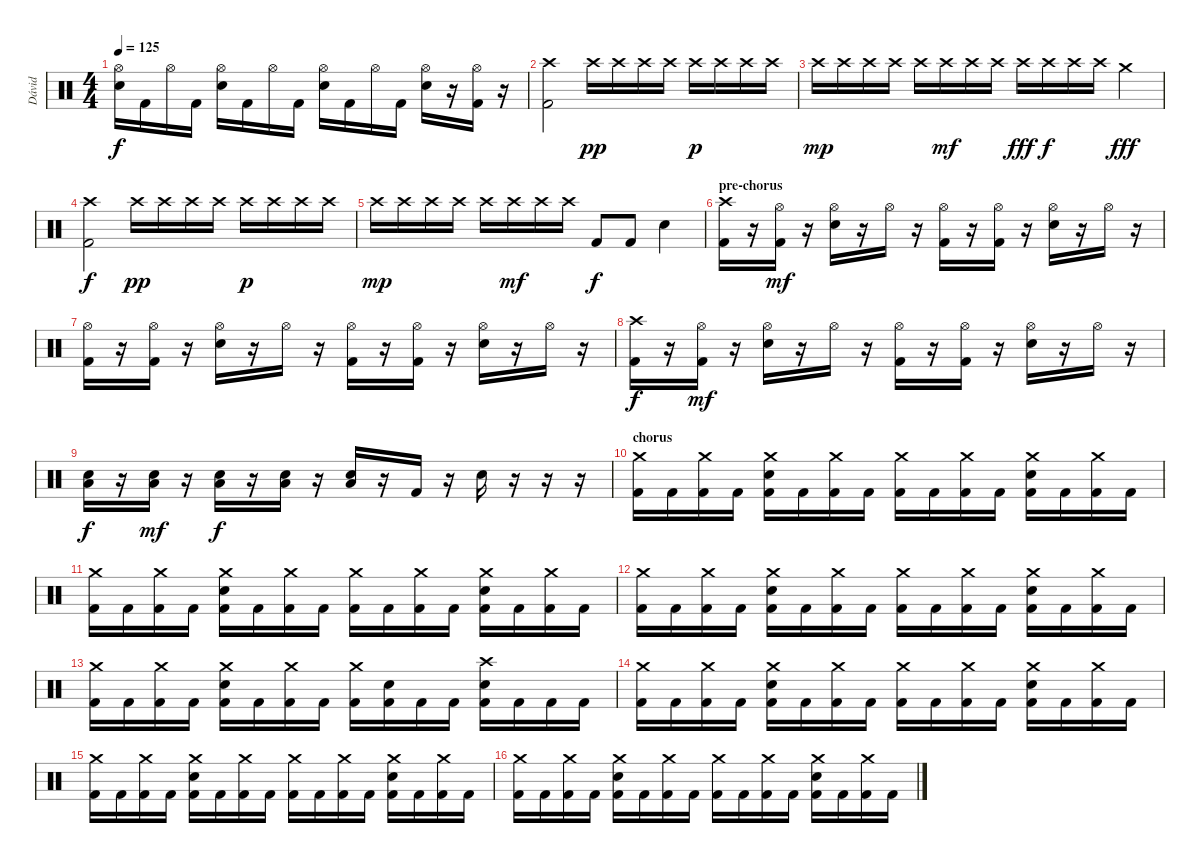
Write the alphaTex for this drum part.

\track ("Dávid" "Dávid") {instrument percussion}
\staff {score}
\articulation defaults
\ts (4 4)
\tempo 125
\clef neutral
\ks c
("Hi-Hat (open)" "Electric Snare (hit)").16{dy f} "Kick (hit) 2".16 "Hi-Hat (open)".16 "Kick (hit) 2".16 ("Hi-Hat (open)" "Electric Snare (hit)").16 "Kick (hit) 2".16 "Hi-Hat (open)".16 "Kick (hit) 2".16 ("Hi-Hat (open)" "Electric Snare (hit)").16 "Kick (hit) 2".16 "Hi-Hat (open)".16 "Kick (hit) 2".16 ("Hi-Hat (open)" "Electric Snare (hit)").16 r.16 ("Hi-Hat (open)" "Kick (hit) 2").16 r.16 |
("Crash high (hit)" "Kick (hit) 2").2 "Crash high (hit)".16{dy pp} "Crash high (hit)".16 "Crash high (hit)".16 "Crash high (hit)".16 "Crash high (hit)".16{dy p} "Crash high (hit)".16 "Crash high (hit)".16 "Crash high (hit)".16 |
"Crash high (hit)".16{dy mp} "Crash high (hit)".16 "Crash high (hit)".16 "Crash high (hit)".16 "Crash high (hit)".16 "Crash high (hit)".16{dy mf} "Crash high (hit)".16 "Crash high (hit)".16 "Crash high (hit)".16{dy fff} "Crash high (hit)".16{dy f} "Crash high (hit)".16 "Crash high (hit)".16 "Crash medium (hit)".4{dy fff} |
("Crash high (hit)" "Kick (hit) 2").2{dy f} "Crash high (hit)".16{dy pp} "Crash high (hit)".16 "Crash high (hit)".16 "Crash high (hit)".16 "Crash high (hit)".16{dy p} "Crash high (hit)".16 "Crash high (hit)".16 "Crash high (hit)".16 |
"Crash high (hit)".16{dy mp} "Crash high (hit)".16 "Crash high (hit)".16 "Crash high (hit)".16 "Crash high (hit)".16 "Crash high (hit)".16{dy mf} "Crash high (hit)".16 "Crash high (hit)".16 "Kick (hit) 2".8{dy f} "Kick (hit) 2".8 "Electric Snare (hit)".4 |
\section ("" "pre-chorus")
("Crash high (hit)" "Kick (hit) 2").16 r.16 ("Hi-Hat (open)" "Kick (hit) 2").16{dy mf} r.16 ("Hi-Hat (open)" "Electric Snare (hit)").16 r.16 "Hi-Hat (open)".16 r.16 ("Hi-Hat (open)" "Kick (hit) 2").16 r.16 ("Hi-Hat (open)" "Kick (hit) 2").16 r.16 ("Hi-Hat (open)" "Electric Snare (hit)").16 r.16 "Hi-Hat (open)".16 r.16 |
("Hi-Hat (open)" "Kick (hit) 2").16 r.16 ("Hi-Hat (open)" "Kick (hit) 2").16 r.16 ("Hi-Hat (open)" "Electric Snare (hit)").16 r.16 "Hi-Hat (open)".16 r.16 ("Hi-Hat (open)" "Kick (hit) 2").16 r.16 ("Hi-Hat (open)" "Kick (hit) 2").16 r.16 ("Hi-Hat (open)" "Electric Snare (hit)").16 r.16 "Hi-Hat (open)".16 r.16 |
("Crash high (hit)" "Kick (hit) 2").16{dy f} r.16 ("Hi-Hat (open)" "Kick (hit) 2").16{dy mf} r.16 ("Hi-Hat (open)" "Electric Snare (hit)").16 r.16 "Hi-Hat (open)".16 r.16 ("Hi-Hat (open)" "Kick (hit) 2").16 r.16 ("Hi-Hat (open)" "Kick (hit) 2").16 r.16 ("Hi-Hat (open)" "Electric Snare (hit)").16 r.16 "Hi-Hat (open)".16 r.16 |
("Low Floor Tom (hit)" "Electric Snare (hit)").16{dy f} r.16 ("Low Floor Tom (hit)" "Electric Snare (hit)").16{dy mf} r.16 ("Low Floor Tom (hit)" "Electric Snare (hit)").16{dy f} r.16 ("Low Floor Tom (hit)" "Electric Snare (hit)").16 r.16 ("Low Floor Tom (hit)" "Electric Snare (hit)").16 r.16 "Kick (hit) 2".16 r.16 "Electric Snare (hit)".16 r.16 r.16 r.16 |
\section ("" "chorus")
("Crash medium (hit)" "Kick (hit) 2").16 "Kick (hit) 2".16 ("Crash medium (hit)" "Kick (hit) 2").16 "Kick (hit) 2".16 ("Crash medium (hit)" "Electric Snare (hit)" "Kick (hit) 2").16 "Kick (hit) 2".16 ("Crash medium (hit)" "Kick (hit) 2").16 "Kick (hit) 2".16 ("Crash medium (hit)" "Kick (hit) 2").16 "Kick (hit) 2".16 ("Crash medium (hit)" "Kick (hit) 2").16 "Kick (hit) 2".16 ("Crash medium (hit)" "Electric Snare (hit)" "Kick (hit) 2").16 "Kick (hit) 2".16 ("Crash medium (hit)" "Kick (hit) 2").16 "Kick (hit) 2".16 |
("Crash medium (hit)" "Kick (hit) 2").16 "Kick (hit) 2".16 ("Crash medium (hit)" "Kick (hit) 2").16 "Kick (hit) 2".16 ("Crash medium (hit)" "Electric Snare (hit)" "Kick (hit) 2").16 "Kick (hit) 2".16 ("Crash medium (hit)" "Kick (hit) 2").16 "Kick (hit) 2".16 ("Crash medium (hit)" "Kick (hit) 2").16 "Kick (hit) 2".16 ("Crash medium (hit)" "Kick (hit) 2").16 "Kick (hit) 2".16 ("Crash medium (hit)" "Electric Snare (hit)" "Kick (hit) 2").16 "Kick (hit) 2".16 ("Crash medium (hit)" "Kick (hit) 2").16 "Kick (hit) 2".16 |
("Crash medium (hit)" "Kick (hit) 2").16 "Kick (hit) 2".16 ("Crash medium (hit)" "Kick (hit) 2").16 "Kick (hit) 2".16 ("Crash medium (hit)" "Electric Snare (hit)" "Kick (hit) 2").16 "Kick (hit) 2".16 ("Crash medium (hit)" "Kick (hit) 2").16 "Kick (hit) 2".16 ("Crash medium (hit)" "Kick (hit) 2").16 "Kick (hit) 2".16 ("Crash medium (hit)" "Kick (hit) 2").16 "Kick (hit) 2".16 ("Crash medium (hit)" "Electric Snare (hit)" "Kick (hit) 2").16 "Kick (hit) 2".16 ("Crash medium (hit)" "Kick (hit) 2").16 "Kick (hit) 2".16 |
("Crash medium (hit)" "Kick (hit) 2").16 "Kick (hit) 2".16 ("Crash medium (hit)" "Kick (hit) 2").16 "Kick (hit) 2".16 ("Crash medium (hit)" "Electric Snare (hit)" "Kick (hit) 2").16 "Kick (hit) 2".16 ("Crash medium (hit)" "Kick (hit) 2").16 "Kick (hit) 2".16 ("Crash medium (hit)" "Kick (hit) 2").16 ("Electric Snare (hit)" "Kick (hit) 2").16 "Kick (hit) 2".16 "Kick (hit) 2".16 ("Crash high (hit)" "Electric Snare (hit)" "Kick (hit) 2").16 "Kick (hit) 2".16 "Kick (hit) 2".16 "Kick (hit) 2".16 |
("Crash medium (hit)" "Kick (hit) 2").16 "Kick (hit) 2".16 ("Crash medium (hit)" "Kick (hit) 2").16 "Kick (hit) 2".16 ("Crash medium (hit)" "Electric Snare (hit)" "Kick (hit) 2").16 "Kick (hit) 2".16 ("Crash medium (hit)" "Kick (hit) 2").16 "Kick (hit) 2".16 ("Crash medium (hit)" "Kick (hit) 2").16 "Kick (hit) 2".16 ("Crash medium (hit)" "Kick (hit) 2").16 "Kick (hit) 2".16 ("Crash medium (hit)" "Electric Snare (hit)" "Kick (hit) 2").16 "Kick (hit) 2".16 ("Crash medium (hit)" "Kick (hit) 2").16 "Kick (hit) 2".16 |
("Crash medium (hit)" "Kick (hit) 2").16 "Kick (hit) 2".16 ("Crash medium (hit)" "Kick (hit) 2").16 "Kick (hit) 2".16 ("Crash medium (hit)" "Electric Snare (hit)" "Kick (hit) 2").16 "Kick (hit) 2".16 ("Crash medium (hit)" "Kick (hit) 2").16 "Kick (hit) 2".16 ("Crash medium (hit)" "Kick (hit) 2").16 "Kick (hit) 2".16 ("Crash medium (hit)" "Kick (hit) 2").16 "Kick (hit) 2".16 ("Crash medium (hit)" "Electric Snare (hit)" "Kick (hit) 2").16 "Kick (hit) 2".16 ("Crash medium (hit)" "Kick (hit) 2").16 "Kick (hit) 2".16 |
("Crash medium (hit)" "Kick (hit) 2").16 "Kick (hit) 2".16 ("Crash medium (hit)" "Kick (hit) 2").16 "Kick (hit) 2".16 ("Crash medium (hit)" "Electric Snare (hit)" "Kick (hit) 2").16 "Kick (hit) 2".16 ("Crash medium (hit)" "Kick (hit) 2").16 "Kick (hit) 2".16 ("Crash medium (hit)" "Kick (hit) 2").16 "Kick (hit) 2".16 ("Crash medium (hit)" "Kick (hit) 2").16 "Kick (hit) 2".16 ("Crash medium (hit)" "Electric Snare (hit)" "Kick (hit) 2").16 "Kick (hit) 2".16 ("Crash medium (hit)" "Kick (hit) 2").16 "Kick (hit) 2".16
